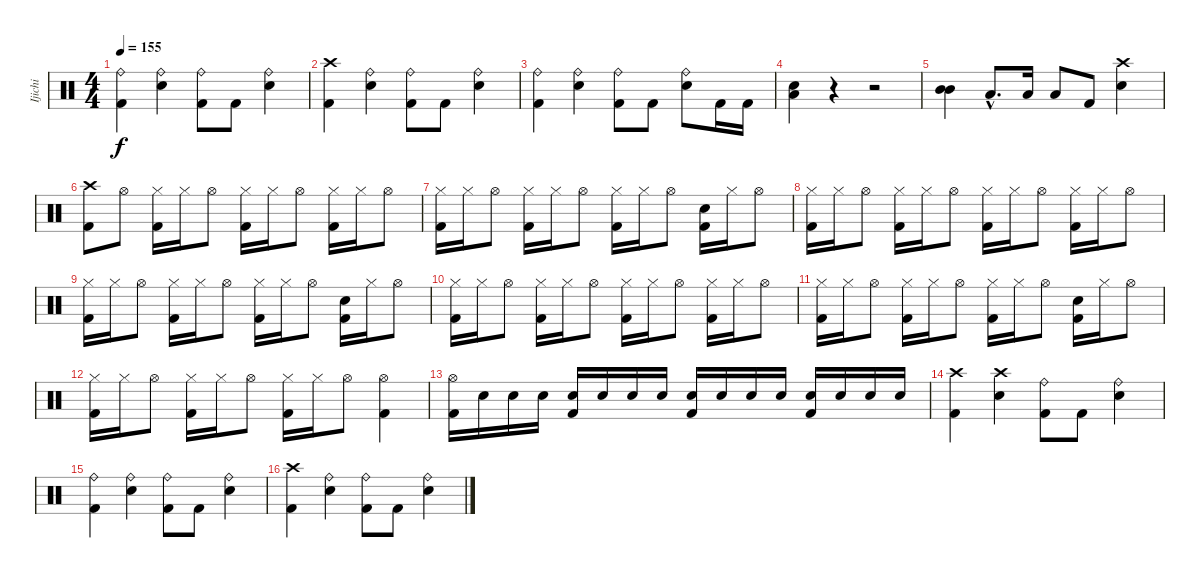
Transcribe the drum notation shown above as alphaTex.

\track ("Ijichi" "Ijichi") {instrument percussion}
\staff {score}
\articulation defaults
\ts (4 4)
\tempo 155
\clef neutral
\ks c
("Ride (bell)" "Kick (hit) 2").4{dy f} ("Ride (bell)" "Snare (hit) 2").4 ("Ride (bell)" "Kick (hit) 2").8 "Kick (hit) 2".8 ("Ride (bell)" "Snare (hit) 2").4 |
("Crash high (hit)" "Kick (hit) 2").4 ("Ride (bell)" "Snare (hit) 2").4 ("Ride (bell)" "Kick (hit) 2").8 "Kick (hit) 2".8 ("Ride (bell)" "Snare (hit) 2").4 |
("Ride (bell)" "Kick (hit) 2").4 ("Ride (bell)" "Snare (hit) 2").4 ("Ride (bell)" "Kick (hit) 2").8 "Kick (hit) 2".8 ("Ride (bell)" "Snare (hit) 2").8 "Kick (hit) 2".16 "Kick (hit) 2".16 |
("Snare (hit) 2" "Low Floor Tom (hit)").4 r.4 r.2 |
("Mid Tom (hit)" "Mid Tom (hit)").4 "Low Tom (hit)"{hac}.8{d} "Low Tom (hit)".16 "Low Tom (hit)".8 "Kick (hit) 2".8 ("Crash high (hit)" "Snare (hit) 2").4 |
("Crash high (hit)" "Kick (hit) 2").8 "Hi-Hat (open)".8 ("Hi-Hat (closed)" "Kick (hit) 2").16 "Hi-Hat (closed)".16 "Hi-Hat (open)".8 ("Hi-Hat (closed)" "Kick (hit) 2").16 "Hi-Hat (closed)".16 "Hi-Hat (open)".8 ("Hi-Hat (closed)" "Kick (hit) 2").16 "Hi-Hat (closed)".16 "Hi-Hat (open)".8 |
("Hi-Hat (closed)" "Kick (hit) 2").16 "Hi-Hat (closed)".16 "Hi-Hat (open)".8 ("Hi-Hat (closed)" "Kick (hit) 2").16 "Hi-Hat (closed)".16 "Hi-Hat (open)".8 ("Hi-Hat (closed)" "Kick (hit) 2").16 "Hi-Hat (closed)".16 "Hi-Hat (open)".8 ("Snare (hit) 2" "Kick (hit) 2").16 "Hi-Hat (closed)".16 "Hi-Hat (open)".8 |
("Hi-Hat (closed)" "Kick (hit) 2").16 "Hi-Hat (closed)".16 "Hi-Hat (open)".8 ("Hi-Hat (closed)" "Kick (hit) 2").16 "Hi-Hat (closed)".16 "Hi-Hat (open)".8 ("Hi-Hat (closed)" "Kick (hit) 2").16 "Hi-Hat (closed)".16 "Hi-Hat (open)".8 ("Hi-Hat (closed)" "Kick (hit) 2").16 "Hi-Hat (closed)".16 "Hi-Hat (open)".8 |
("Hi-Hat (closed)" "Kick (hit) 2").16 "Hi-Hat (closed)".16 "Hi-Hat (open)".8 ("Hi-Hat (closed)" "Kick (hit) 2").16 "Hi-Hat (closed)".16 "Hi-Hat (open)".8 ("Hi-Hat (closed)" "Kick (hit) 2").16 "Hi-Hat (closed)".16 "Hi-Hat (open)".8 ("Snare (hit) 2" "Kick (hit) 2").16 "Hi-Hat (closed)".16 "Hi-Hat (open)".8 |
("Hi-Hat (closed)" "Kick (hit) 2").16 "Hi-Hat (closed)".16 "Hi-Hat (open)".8 ("Hi-Hat (closed)" "Kick (hit) 2").16 "Hi-Hat (closed)".16 "Hi-Hat (open)".8 ("Hi-Hat (closed)" "Kick (hit) 2").16 "Hi-Hat (closed)".16 "Hi-Hat (open)".8 ("Hi-Hat (closed)" "Kick (hit) 2").16 "Hi-Hat (closed)".16 "Hi-Hat (open)".8 |
("Hi-Hat (closed)" "Kick (hit) 2").16 "Hi-Hat (closed)".16 "Hi-Hat (open)".8 ("Hi-Hat (closed)" "Kick (hit) 2").16 "Hi-Hat (closed)".16 "Hi-Hat (open)".8 ("Hi-Hat (closed)" "Kick (hit) 2").16 "Hi-Hat (closed)".16 "Hi-Hat (open)".8 ("Snare (hit) 2" "Kick (hit) 2").16 "Hi-Hat (closed)".16 "Hi-Hat (open)".8 |
("Hi-Hat (closed)" "Kick (hit) 2").16 "Hi-Hat (closed)".16 "Hi-Hat (open)".8 ("Hi-Hat (closed)" "Kick (hit) 2").16 "Hi-Hat (closed)".16 "Hi-Hat (open)".8 ("Hi-Hat (closed)" "Kick (hit) 2").16 "Hi-Hat (closed)".16 "Hi-Hat (open)".8 ("Hi-Hat (open)" "Kick (hit) 2").4 |
("Hi-Hat (open)" "Kick (hit) 2").16 "Snare (hit) 2".16 "Snare (hit) 2".16 "Snare (hit) 2".16 ("Snare (hit) 2" "Kick (hit) 2").16 "Snare (hit) 2".16 "Snare (hit) 2".16 "Snare (hit) 2".16 ("Snare (hit) 2" "Kick (hit) 2").16 "Snare (hit) 2".16 "Snare (hit) 2".16 "Snare (hit) 2".16 ("Snare (hit) 2" "Kick (hit) 2").16 "Snare (hit) 2".16 "Snare (hit) 2".16 "Snare (hit) 2".16 |
("Crash high (hit)" "Kick (hit) 2").4 ("Crash high (hit)" "Snare (hit) 2").4 ("Ride (bell)" "Kick (hit) 2").8 "Kick (hit) 2".8 ("Ride (bell)" "Snare (hit) 2").4 |
("Ride (bell)" "Kick (hit) 2").4 ("Ride (bell)" "Snare (hit) 2").4 ("Ride (bell)" "Kick (hit) 2").8 "Kick (hit) 2".8 ("Ride (bell)" "Snare (hit) 2").4 |
("Crash high (hit)" "Kick (hit) 2").4 ("Ride (bell)" "Snare (hit) 2").4 ("Ride (bell)" "Kick (hit) 2").8 "Kick (hit) 2".8 ("Ride (bell)" "Snare (hit) 2").4
